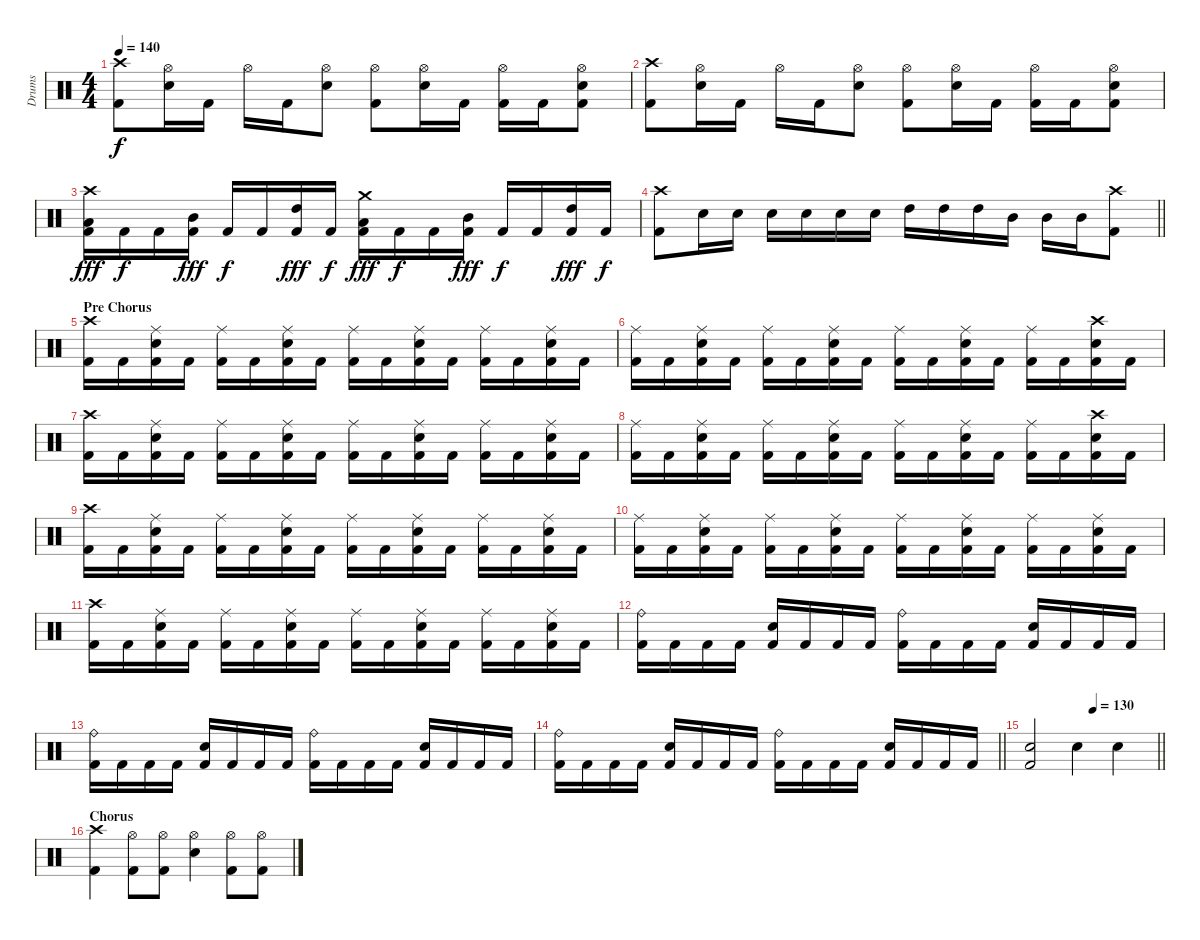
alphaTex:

\track ("Drums" "Drums") {instrument percussion}
\staff {score}
\articulation defaults
\ts (4 4)
\tempo 140
\clef neutral
\ks c
("Crash high (hit)" "Kick (hit) 2").8{dy f} ("Hi-Hat (open)" "Snare (hit) 2").16 "Kick (hit) 2".16 "Hi-Hat (open)".16 "Kick (hit) 2".16 ("Hi-Hat (open)" "Snare (hit) 2").8 ("Hi-Hat (open)" "Kick (hit) 2").8 ("Hi-Hat (open)" "Snare (hit) 2").16 "Kick (hit) 2".16 ("Hi-Hat (open)" "Kick (hit) 2").16 "Kick (hit) 2".16 ("Hi-Hat (open)" "Snare (hit) 2" "Kick (hit) 2").8 |
("Crash high (hit)" "Kick (hit) 2").8 ("Hi-Hat (open)" "Snare (hit) 2").16 "Kick (hit) 2".16 "Hi-Hat (open)".16 "Kick (hit) 2".16 ("Hi-Hat (open)" "Snare (hit) 2").8 ("Hi-Hat (open)" "Kick (hit) 2").8 ("Hi-Hat (open)" "Snare (hit) 2").16 "Kick (hit) 2".16 ("Hi-Hat (open)" "Kick (hit) 2").16 "Kick (hit) 2".16 ("Hi-Hat (open)" "Snare (hit) 2" "Kick (hit) 2").8 |
("Crash high (hit)" "Low Tom (hit)" "Kick (hit) 2").16{dy fff} "Kick (hit) 2".16{dy f} "Kick (hit) 2".16 ("Mid Tom (hit)" "Kick (hit) 2").16{dy fff} "Kick (hit) 2".16{dy f} "Kick (hit) 2".16 ("High Tom (hit)" "Kick (hit) 2").16{dy fff} "Kick (hit) 2".16{dy f} ("Crash medium (hit)" "Low Tom (hit)" "Kick (hit) 2").16{dy fff} "Kick (hit) 2".16{dy f} "Kick (hit) 2".16 ("Mid Tom (hit)" "Kick (hit) 2").16{dy fff} "Kick (hit) 2".16{dy f} "Kick (hit) 2".16 ("High Tom (hit)" "Kick (hit) 2").16{dy fff} "Kick (hit) 2".16{dy f} |
\barLineRight lightlight
("Crash high (hit)" "Kick (hit) 2").8 "Snare (hit) 2".16 "Snare (hit) 2".16 "Snare (hit) 2".16 "Snare (hit) 2".16 "Snare (hit) 2".16 "Snare (hit) 2".16 "High Tom (hit)".16 "High Tom (hit)".16 "High Tom (hit)".16 "Mid Tom (hit)".16 "Mid Tom (hit)".16 "Mid Tom (hit)".16 ("Crash high (hit)" "Kick (hit) 2").8 |
\section ("" "Pre Chorus")
("Crash high (hit)" "Kick (hit) 2").16 "Kick (hit) 2".16 ("Snare (hit) 2" "Ride (middle)" "Kick (hit) 2").16 "Kick (hit) 2".16 ("Ride (middle)" "Kick (hit) 2").16 "Kick (hit) 2".16 ("Snare (hit) 2" "Ride (middle)" "Kick (hit) 2").16 "Kick (hit) 2".16 ("Ride (middle)" "Kick (hit) 2").16 "Kick (hit) 2".16 ("Snare (hit) 2" "Ride (middle)" "Kick (hit) 2").16 "Kick (hit) 2".16 ("Ride (middle)" "Kick (hit) 2").16 "Kick (hit) 2".16 ("Snare (hit) 2" "Ride (middle)" "Kick (hit) 2").16 "Kick (hit) 2".16 |
("Ride (middle)" "Kick (hit) 2").16 "Kick (hit) 2".16 ("Snare (hit) 2" "Ride (middle)" "Kick (hit) 2").16 "Kick (hit) 2".16 ("Ride (middle)" "Kick (hit) 2").16 "Kick (hit) 2".16 ("Snare (hit) 2" "Ride (middle)" "Kick (hit) 2").16 "Kick (hit) 2".16 ("Ride (middle)" "Kick (hit) 2").16 "Kick (hit) 2".16 ("Snare (hit) 2" "Ride (middle)" "Kick (hit) 2").16 "Kick (hit) 2".16 ("Ride (middle)" "Kick (hit) 2").16 "Kick (hit) 2".16 ("Snare (hit) 2" "Crash high (hit)" "Kick (hit) 2").16 "Kick (hit) 2".16 |
("Crash high (hit)" "Kick (hit) 2").16 "Kick (hit) 2".16 ("Snare (hit) 2" "Ride (middle)" "Kick (hit) 2").16 "Kick (hit) 2".16 ("Ride (middle)" "Kick (hit) 2").16 "Kick (hit) 2".16 ("Snare (hit) 2" "Ride (middle)" "Kick (hit) 2").16 "Kick (hit) 2".16 ("Ride (middle)" "Kick (hit) 2").16 "Kick (hit) 2".16 ("Snare (hit) 2" "Ride (middle)" "Kick (hit) 2").16 "Kick (hit) 2".16 ("Ride (middle)" "Kick (hit) 2").16 "Kick (hit) 2".16 ("Snare (hit) 2" "Ride (middle)" "Kick (hit) 2").16 "Kick (hit) 2".16 |
("Ride (middle)" "Kick (hit) 2").16 "Kick (hit) 2".16 ("Snare (hit) 2" "Ride (middle)" "Kick (hit) 2").16 "Kick (hit) 2".16 ("Ride (middle)" "Kick (hit) 2").16 "Kick (hit) 2".16 ("Snare (hit) 2" "Ride (middle)" "Kick (hit) 2").16 "Kick (hit) 2".16 ("Ride (middle)" "Kick (hit) 2").16 "Kick (hit) 2".16 ("Snare (hit) 2" "Ride (middle)" "Kick (hit) 2").16 "Kick (hit) 2".16 ("Ride (middle)" "Kick (hit) 2").16 "Kick (hit) 2".16 ("Snare (hit) 2" "Crash high (hit)" "Kick (hit) 2").16 "Kick (hit) 2".16 |
("Crash high (hit)" "Kick (hit) 2").16 "Kick (hit) 2".16 ("Snare (hit) 2" "Ride (middle)" "Kick (hit) 2").16 "Kick (hit) 2".16 ("Ride (middle)" "Kick (hit) 2").16 "Kick (hit) 2".16 ("Snare (hit) 2" "Ride (middle)" "Kick (hit) 2").16 "Kick (hit) 2".16 ("Ride (middle)" "Kick (hit) 2").16 "Kick (hit) 2".16 ("Snare (hit) 2" "Ride (middle)" "Kick (hit) 2").16 "Kick (hit) 2".16 ("Ride (middle)" "Kick (hit) 2").16 "Kick (hit) 2".16 ("Snare (hit) 2" "Ride (middle)" "Kick (hit) 2").16 "Kick (hit) 2".16 |
("Ride (middle)" "Kick (hit) 2").16 "Kick (hit) 2".16 ("Snare (hit) 2" "Ride (middle)" "Kick (hit) 2").16 "Kick (hit) 2".16 ("Ride (middle)" "Kick (hit) 2").16 "Kick (hit) 2".16 ("Snare (hit) 2" "Ride (middle)" "Kick (hit) 2").16 "Kick (hit) 2".16 ("Ride (middle)" "Kick (hit) 2").16 "Kick (hit) 2".16 ("Snare (hit) 2" "Ride (middle)" "Kick (hit) 2").16 "Kick (hit) 2".16 ("Ride (middle)" "Kick (hit) 2").16 "Kick (hit) 2".16 ("Snare (hit) 2" "Ride (middle)" "Kick (hit) 2").16 "Kick (hit) 2".16 |
("Crash high (hit)" "Kick (hit) 2").16 "Kick (hit) 2".16 ("Snare (hit) 2" "Ride (middle)" "Kick (hit) 2").16 "Kick (hit) 2".16 ("Ride (middle)" "Kick (hit) 2").16 "Kick (hit) 2".16 ("Snare (hit) 2" "Ride (middle)" "Kick (hit) 2").16 "Kick (hit) 2".16 ("Ride (middle)" "Kick (hit) 2").16 "Kick (hit) 2".16 ("Snare (hit) 2" "Ride (middle)" "Kick (hit) 2").16 "Kick (hit) 2".16 ("Ride (middle)" "Kick (hit) 2").16 "Kick (hit) 2".16 ("Snare (hit) 2" "Ride (middle)" "Kick (hit) 2").16 "Kick (hit) 2".16 |
("Ride (bell)" "Kick (hit) 2").16 "Kick (hit) 2".16 "Kick (hit) 2".16 "Kick (hit) 2".16 ("Snare (hit) 2" "Kick (hit) 2").16 "Kick (hit) 2".16 "Kick (hit) 2".16 "Kick (hit) 2".16 ("Ride (bell)" "Kick (hit) 2").16 "Kick (hit) 2".16 "Kick (hit) 2".16 "Kick (hit) 2".16 ("Snare (hit) 2" "Kick (hit) 2").16 "Kick (hit) 2".16 "Kick (hit) 2".16 "Kick (hit) 2".16 |
("Ride (bell)" "Kick (hit) 2").16 "Kick (hit) 2".16 "Kick (hit) 2".16 "Kick (hit) 2".16 ("Snare (hit) 2" "Kick (hit) 2").16 "Kick (hit) 2".16 "Kick (hit) 2".16 "Kick (hit) 2".16 ("Ride (bell)" "Kick (hit) 2").16 "Kick (hit) 2".16 "Kick (hit) 2".16 "Kick (hit) 2".16 ("Snare (hit) 2" "Kick (hit) 2").16 "Kick (hit) 2".16 "Kick (hit) 2".16 "Kick (hit) 2".16 |
\barLineRight lightlight
("Ride (bell)" "Kick (hit) 2").16 "Kick (hit) 2".16 "Kick (hit) 2".16 "Kick (hit) 2".16 ("Snare (hit) 2" "Kick (hit) 2").16 "Kick (hit) 2".16 "Kick (hit) 2".16 "Kick (hit) 2".16 ("Ride (bell)" "Kick (hit) 2").16 "Kick (hit) 2".16 "Kick (hit) 2".16 "Kick (hit) 2".16 ("Snare (hit) 2" "Kick (hit) 2").16 "Kick (hit) 2".16 "Kick (hit) 2".16 "Kick (hit) 2".16 |
\section ("" "")
\tempo (130 0.5)
\barLineRight lightlight
("Snare (hit) 2" "Kick (hit) 2").2 "Snare (hit) 2".4 "Snare (hit) 2".4 |
\section ("" "Chorus")
("Crash high (hit)" "Kick (hit) 2").4 ("Hi-Hat (open)" "Kick (hit) 2").8 ("Hi-Hat (open)" "Kick (hit) 2").8 ("Hi-Hat (open)" "Snare (hit) 2").4 ("Hi-Hat (open)" "Kick (hit) 2").8 ("Hi-Hat (open)" "Kick (hit) 2").8
